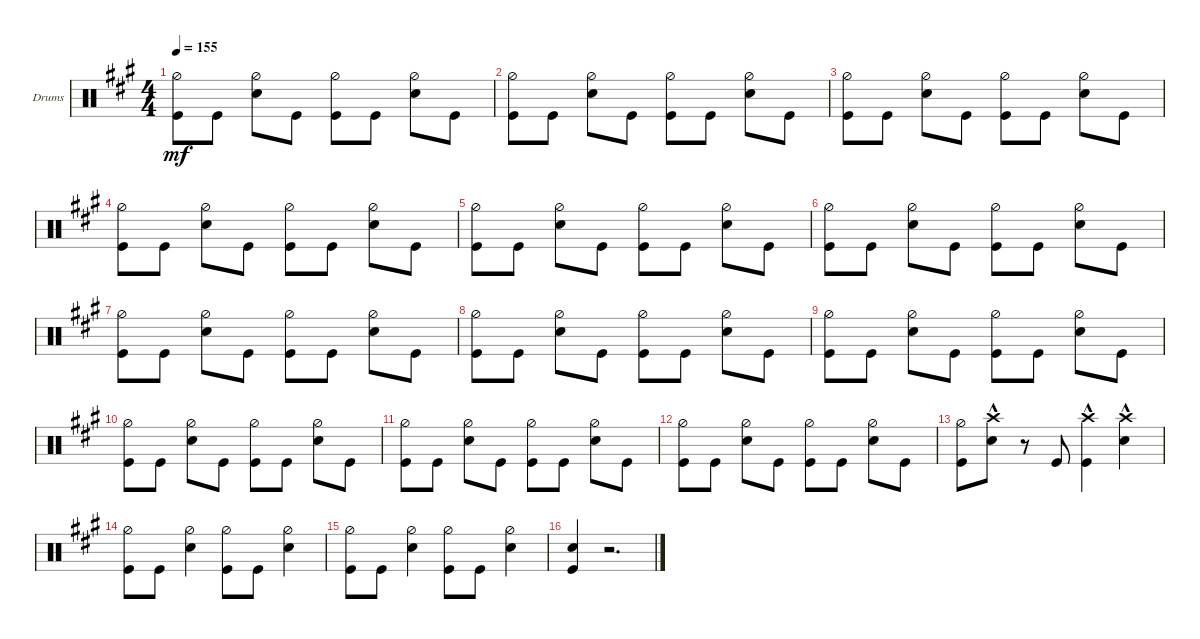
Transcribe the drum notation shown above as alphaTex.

\defaultSystemsLayout 4
\bracketExtendMode groupsimilarinstruments
\firstSystemTrackNameOrientation horizontal
\otherSystemsTrackNameOrientation horizontal
\track ("John Bonham" "Drums") {instrument percussion}
\staff {score}
\articulation defaults
\ts (4 4)
\tempo 155
\clef neutral
\ks a
("Hi-Hat (half)" "Kick (hit)").8{dy mf} "Kick (hit)".8 ("Hi-Hat (half)" "Snare (hit) 2").8 "Kick (hit)".8 ("Kick (hit)" "Hi-Hat (half)").8 "Kick (hit)".8 ("Hi-Hat (half)" "Snare (hit) 2").8 "Kick (hit)".8 |
("Hi-Hat (half)" "Kick (hit)").8 "Kick (hit)".8 ("Hi-Hat (half)" "Snare (hit) 2").8 "Kick (hit)".8 ("Kick (hit)" "Hi-Hat (half)").8 "Kick (hit)".8 ("Hi-Hat (half)" "Snare (hit) 2").8 "Kick (hit)".8 |
("Hi-Hat (half)" "Kick (hit)").8 "Kick (hit)".8 ("Hi-Hat (half)" "Snare (hit) 2").8 "Kick (hit)".8 ("Kick (hit)" "Hi-Hat (half)").8 "Kick (hit)".8 ("Hi-Hat (half)" "Snare (hit) 2").8 "Kick (hit)".8 |
("Hi-Hat (half)" "Kick (hit)").8 "Kick (hit)".8 ("Hi-Hat (half)" "Snare (hit) 2").8 "Kick (hit)".8 ("Kick (hit)" "Hi-Hat (half)").8 "Kick (hit)".8 ("Hi-Hat (half)" "Snare (hit) 2").8 "Kick (hit)".8 |
("Hi-Hat (half)" "Kick (hit)").8 "Kick (hit)".8 ("Hi-Hat (half)" "Snare (hit) 2").8 "Kick (hit)".8 ("Kick (hit)" "Hi-Hat (half)").8 "Kick (hit)".8 ("Hi-Hat (half)" "Snare (hit) 2").8 "Kick (hit)".8 |
("Hi-Hat (half)" "Kick (hit)").8 "Kick (hit)".8 ("Hi-Hat (half)" "Snare (hit) 2").8 "Kick (hit)".8 ("Kick (hit)" "Hi-Hat (half)").8 "Kick (hit)".8 ("Hi-Hat (half)" "Snare (hit) 2").8 "Kick (hit)".8 |
("Hi-Hat (half)" "Kick (hit)").8 "Kick (hit)".8 ("Hi-Hat (half)" "Snare (hit) 2").8 "Kick (hit)".8 ("Kick (hit)" "Hi-Hat (half)").8 "Kick (hit)".8 ("Hi-Hat (half)" "Snare (hit) 2").8 "Kick (hit)".8 |
("Hi-Hat (half)" "Kick (hit)").8 "Kick (hit)".8 ("Hi-Hat (half)" "Snare (hit) 2").8 "Kick (hit)".8 ("Kick (hit)" "Hi-Hat (half)").8 "Kick (hit)".8 ("Hi-Hat (half)" "Snare (hit) 2").8 "Kick (hit)".8 |
("Hi-Hat (half)" "Kick (hit)").8 "Kick (hit)".8 ("Hi-Hat (half)" "Snare (hit) 2").8 "Kick (hit)".8 ("Kick (hit)" "Hi-Hat (half)").8 "Kick (hit)".8 ("Hi-Hat (half)" "Snare (hit) 2").8 "Kick (hit)".8 |
("Hi-Hat (half)" "Kick (hit)").8 "Kick (hit)".8 ("Hi-Hat (half)" "Snare (hit) 2").8 "Kick (hit)".8 ("Kick (hit)" "Hi-Hat (half)").8 "Kick (hit)".8 ("Hi-Hat (half)" "Snare (hit) 2").8 "Kick (hit)".8 |
("Hi-Hat (half)" "Kick (hit)").8 "Kick (hit)".8 ("Hi-Hat (half)" "Snare (hit) 2").8 "Kick (hit)".8 ("Kick (hit)" "Hi-Hat (half)").8 "Kick (hit)".8 ("Hi-Hat (half)" "Snare (hit) 2").8 "Kick (hit)".8 |
("Hi-Hat (half)" "Kick (hit)").8 "Kick (hit)".8 ("Hi-Hat (half)" "Snare (hit) 2").8 "Kick (hit)".8 ("Kick (hit)" "Hi-Hat (half)").8 "Kick (hit)".8 ("Hi-Hat (half)" "Snare (hit) 2").8 "Kick (hit)".8 |
("Hi-Hat (half)" "Kick (hit)").8 ("Crash high (hit)"{hac} "Snare (hit) 2"{hac}).8 r.8 "Kick (hit)".8 ("Crash high (hit)"{hac} "Kick (hit)").4 ("Snare (hit) 2"{hac} "Crash high (hit)"{hac}).4 |
("Hi-Hat (half)" "Kick (hit)").8 "Kick (hit)".8 ("Hi-Hat (half)" "Snare (hit) 2").4 ("Hi-Hat (half)" "Kick (hit)").8 "Kick (hit)".8 ("Snare (hit) 2" "Hi-Hat (half)").4 |
("Hi-Hat (half)" "Kick (hit)").8 "Kick (hit)".8 ("Hi-Hat (half)" "Snare (hit) 2").4 ("Hi-Hat (half)" "Kick (hit)").8 "Kick (hit)".8 ("Snare (hit) 2" "Hi-Hat (half)").4 |
("Snare (hit) 2" "Kick (hit)").4 r.2{d}
